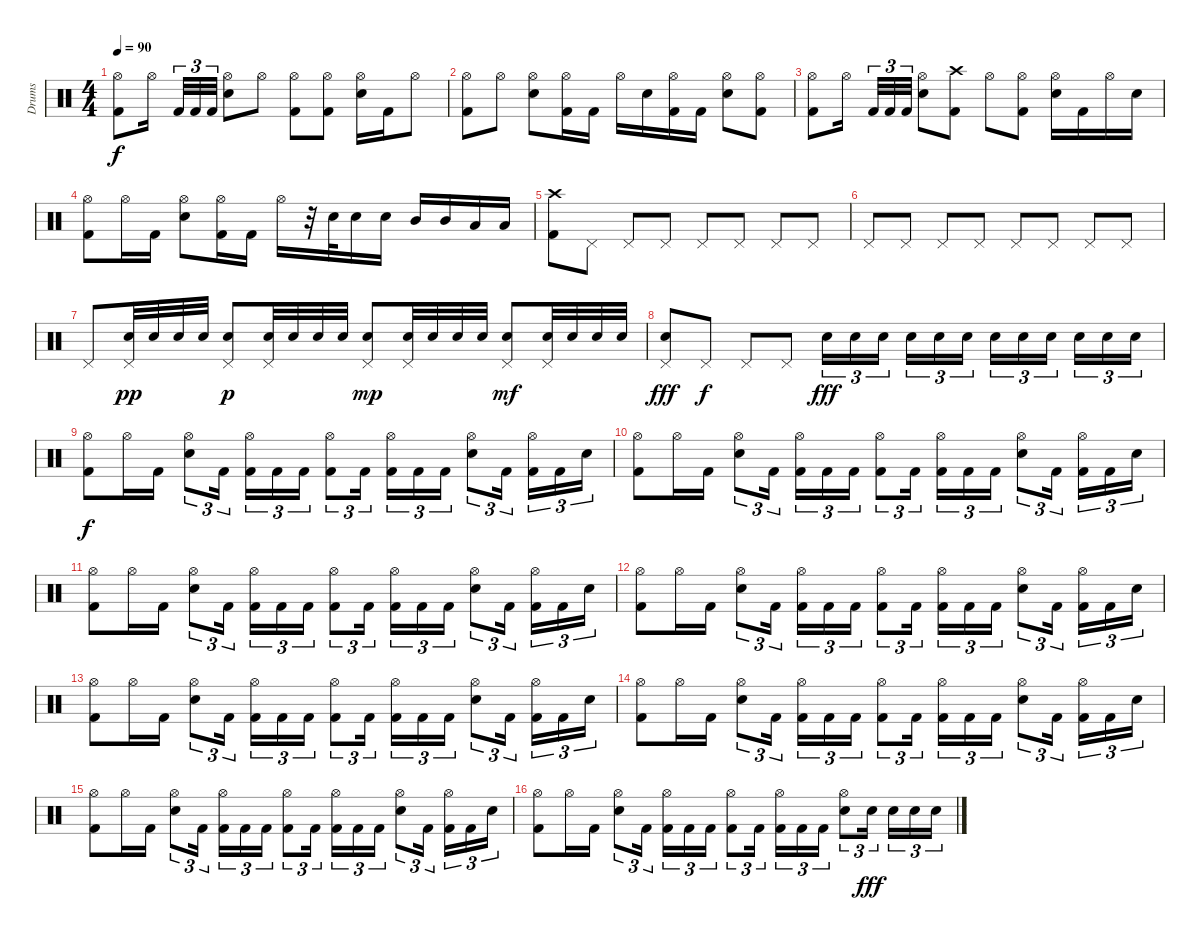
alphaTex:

\track ("Drums" "Drums") {instrument percussion}
\staff {score}
\articulation defaults
\ts (4 4)
\tempo 90
\clef neutral
\ks c
("Hi-Hat (open)" "Kick (hit) 2").8{dy f} "Hi-Hat (open)".16 "Kick (hit) 2".32{tu (3 2)} "Kick (hit) 2".32{tu (3 2)} "Kick (hit) 2".32{tu (3 2)} ("Hi-Hat (open)" "Electric Snare (hit)").8 "Hi-Hat (open)".8 ("Hi-Hat (open)" "Kick (hit) 2").8 ("Hi-Hat (open)" "Kick (hit) 2").8 ("Hi-Hat (open)" "Electric Snare (hit)").16 "Kick (hit) 2".16 "Hi-Hat (open)".8 |
("Hi-Hat (open)" "Kick (hit) 2").8 "Hi-Hat (open)".8 ("Hi-Hat (open)" "Electric Snare (hit)").8 ("Hi-Hat (open)" "Kick (hit) 2").16 "Kick (hit) 2".16 "Hi-Hat (open)".16 "Electric Snare (hit)".16 ("Hi-Hat (open)" "Kick (hit) 2").16 "Kick (hit) 2".16 ("Hi-Hat (open)" "Electric Snare (hit)").8 ("Hi-Hat (open)" "Kick (hit) 2").8 |
("Hi-Hat (open)" "Kick (hit) 2").8 "Hi-Hat (open)".16 "Kick (hit) 2".32{tu (3 2)} "Kick (hit) 2".32{tu (3 2)} "Kick (hit) 2".32{tu (3 2)} ("Hi-Hat (open)" "Electric Snare (hit)").8 ("Crash high (hit)" "Kick (hit) 2").8 "Hi-Hat (open)".8 ("Hi-Hat (open)" "Kick (hit) 2").8 ("Hi-Hat (open)" "Electric Snare (hit)").16 "Kick (hit) 2".16 "Hi-Hat (open)".16 "Electric Snare (hit)".16 |
("Hi-Hat (open)" "Kick (hit) 2").8 "Hi-Hat (open)".16 "Kick (hit) 2".16 ("Hi-Hat (open)" "Electric Snare (hit)").8 ("Hi-Hat (open)" "Kick (hit) 2").16 "Kick (hit) 2".16 "Hi-Hat (open)".16 r.32 "Electric Snare (hit)".32 "Electric Snare (hit)".16 "Electric Snare (hit)".16 "Mid Tom (hit)".16 "Mid Tom (hit)".16 "Low Tom (hit)".16 "Low Tom (hit)".16 |
("Crash high (hit)" "Kick (hit) 2").8 "Pedal Hi-Hat (hit)".8 "Pedal Hi-Hat (hit)".8 "Pedal Hi-Hat (hit)".8 "Pedal Hi-Hat (hit)".8 "Pedal Hi-Hat (hit)".8 "Pedal Hi-Hat (hit)".8 "Pedal Hi-Hat (hit)".8 |
"Pedal Hi-Hat (hit)".8 "Pedal Hi-Hat (hit)".8 "Pedal Hi-Hat (hit)".8 "Pedal Hi-Hat (hit)".8 "Pedal Hi-Hat (hit)".8 "Pedal Hi-Hat (hit)".8 "Pedal Hi-Hat (hit)".8 "Pedal Hi-Hat (hit)".8 |
"Pedal Hi-Hat (hit)".8 ("Pedal Hi-Hat (hit)" "Electric Snare (hit)").32{dy pp} "Electric Snare (hit)".32 "Electric Snare (hit)".32 "Electric Snare (hit)".32 ("Pedal Hi-Hat (hit)" "Electric Snare (hit)").8{dy p} ("Pedal Hi-Hat (hit)" "Electric Snare (hit)").32 "Electric Snare (hit)".32 "Electric Snare (hit)".32 "Electric Snare (hit)".32 ("Pedal Hi-Hat (hit)" "Electric Snare (hit)").8{dy mp} ("Pedal Hi-Hat (hit)" "Electric Snare (hit)").32 "Electric Snare (hit)".32 "Electric Snare (hit)".32 "Electric Snare (hit)".32 ("Pedal Hi-Hat (hit)" "Electric Snare (hit)").8{dy mf} ("Pedal Hi-Hat (hit)" "Electric Snare (hit)").32 "Electric Snare (hit)".32 "Electric Snare (hit)".32 "Electric Snare (hit)".32 |
("Pedal Hi-Hat (hit)" "Electric Snare (hit)").8{dy fff} "Pedal Hi-Hat (hit)".8{dy f} "Pedal Hi-Hat (hit)".8 "Pedal Hi-Hat (hit)".8 "Electric Snare (hit)".16{tu (3 2) dy fff} "Electric Snare (hit)".16{tu (3 2)} "Electric Snare (hit)".16{tu (3 2)} "Electric Snare (hit)".16{tu (3 2)} "Electric Snare (hit)".16{tu (3 2)} "Electric Snare (hit)".16{tu (3 2)} "Electric Snare (hit)".16{tu (3 2)} "Electric Snare (hit)".16{tu (3 2)} "Electric Snare (hit)".16{tu (3 2)} "Electric Snare (hit)".16{tu (3 2)} "Electric Snare (hit)".16{tu (3 2)} "Electric Snare (hit)".16{tu (3 2)} |
("Hi-Hat (open)" "Kick (hit) 2").8{dy f} "Hi-Hat (open)".16 "Kick (hit) 2".16 ("Hi-Hat (open)" "Electric Snare (hit)").8{tu (3 2)} "Kick (hit) 2".16{tu (3 2)} ("Hi-Hat (open)" "Kick (hit) 2").16{tu (3 2)} "Kick (hit) 2".16{tu (3 2)} "Kick (hit) 2".16{tu (3 2)} ("Hi-Hat (open)" "Kick (hit) 2").8{tu (3 2)} "Kick (hit) 2".16{tu (3 2)} ("Hi-Hat (open)" "Kick (hit) 2").16{tu (3 2)} "Kick (hit) 2".16{tu (3 2)} "Kick (hit) 2".16{tu (3 2)} ("Hi-Hat (open)" "Electric Snare (hit)").8{tu (3 2)} "Kick (hit) 2".16{tu (3 2)} ("Hi-Hat (open)" "Kick (hit) 2").16{tu (3 2)} "Kick (hit) 2".16{tu (3 2)} "Electric Snare (hit)".16{tu (3 2)} |
("Hi-Hat (open)" "Kick (hit) 2").8 "Hi-Hat (open)".16 "Kick (hit) 2".16 ("Hi-Hat (open)" "Electric Snare (hit)").8{tu (3 2)} "Kick (hit) 2".16{tu (3 2)} ("Hi-Hat (open)" "Kick (hit) 2").16{tu (3 2)} "Kick (hit) 2".16{tu (3 2)} "Kick (hit) 2".16{tu (3 2)} ("Hi-Hat (open)" "Kick (hit) 2").8{tu (3 2)} "Kick (hit) 2".16{tu (3 2)} ("Hi-Hat (open)" "Kick (hit) 2").16{tu (3 2)} "Kick (hit) 2".16{tu (3 2)} "Kick (hit) 2".16{tu (3 2)} ("Hi-Hat (open)" "Electric Snare (hit)").8{tu (3 2)} "Kick (hit) 2".16{tu (3 2)} ("Hi-Hat (open)" "Kick (hit) 2").16{tu (3 2)} "Kick (hit) 2".16{tu (3 2)} "Electric Snare (hit)".16{tu (3 2)} |
("Hi-Hat (open)" "Kick (hit) 2").8 "Hi-Hat (open)".16 "Kick (hit) 2".16 ("Hi-Hat (open)" "Electric Snare (hit)").8{tu (3 2)} "Kick (hit) 2".16{tu (3 2)} ("Hi-Hat (open)" "Kick (hit) 2").16{tu (3 2)} "Kick (hit) 2".16{tu (3 2)} "Kick (hit) 2".16{tu (3 2)} ("Hi-Hat (open)" "Kick (hit) 2").8{tu (3 2)} "Kick (hit) 2".16{tu (3 2)} ("Hi-Hat (open)" "Kick (hit) 2").16{tu (3 2)} "Kick (hit) 2".16{tu (3 2)} "Kick (hit) 2".16{tu (3 2)} ("Hi-Hat (open)" "Electric Snare (hit)").8{tu (3 2)} "Kick (hit) 2".16{tu (3 2)} ("Hi-Hat (open)" "Kick (hit) 2").16{tu (3 2)} "Kick (hit) 2".16{tu (3 2)} "Electric Snare (hit)".16{tu (3 2)} |
("Hi-Hat (open)" "Kick (hit) 2").8 "Hi-Hat (open)".16 "Kick (hit) 2".16 ("Hi-Hat (open)" "Electric Snare (hit)").8{tu (3 2)} "Kick (hit) 2".16{tu (3 2)} ("Hi-Hat (open)" "Kick (hit) 2").16{tu (3 2)} "Kick (hit) 2".16{tu (3 2)} "Kick (hit) 2".16{tu (3 2)} ("Hi-Hat (open)" "Kick (hit) 2").8{tu (3 2)} "Kick (hit) 2".16{tu (3 2)} ("Hi-Hat (open)" "Kick (hit) 2").16{tu (3 2)} "Kick (hit) 2".16{tu (3 2)} "Kick (hit) 2".16{tu (3 2)} ("Hi-Hat (open)" "Electric Snare (hit)").8{tu (3 2)} "Kick (hit) 2".16{tu (3 2)} ("Hi-Hat (open)" "Kick (hit) 2").16{tu (3 2)} "Kick (hit) 2".16{tu (3 2)} "Electric Snare (hit)".16{tu (3 2)} |
("Hi-Hat (open)" "Kick (hit) 2").8 "Hi-Hat (open)".16 "Kick (hit) 2".16 ("Hi-Hat (open)" "Electric Snare (hit)").8{tu (3 2)} "Kick (hit) 2".16{tu (3 2)} ("Hi-Hat (open)" "Kick (hit) 2").16{tu (3 2)} "Kick (hit) 2".16{tu (3 2)} "Kick (hit) 2".16{tu (3 2)} ("Hi-Hat (open)" "Kick (hit) 2").8{tu (3 2)} "Kick (hit) 2".16{tu (3 2)} ("Hi-Hat (open)" "Kick (hit) 2").16{tu (3 2)} "Kick (hit) 2".16{tu (3 2)} "Kick (hit) 2".16{tu (3 2)} ("Hi-Hat (open)" "Electric Snare (hit)").8{tu (3 2)} "Kick (hit) 2".16{tu (3 2)} ("Hi-Hat (open)" "Kick (hit) 2").16{tu (3 2)} "Kick (hit) 2".16{tu (3 2)} "Electric Snare (hit)".16{tu (3 2)} |
("Hi-Hat (open)" "Kick (hit) 2").8 "Hi-Hat (open)".16 "Kick (hit) 2".16 ("Hi-Hat (open)" "Electric Snare (hit)").8{tu (3 2)} "Kick (hit) 2".16{tu (3 2)} ("Hi-Hat (open)" "Kick (hit) 2").16{tu (3 2)} "Kick (hit) 2".16{tu (3 2)} "Kick (hit) 2".16{tu (3 2)} ("Hi-Hat (open)" "Kick (hit) 2").8{tu (3 2)} "Kick (hit) 2".16{tu (3 2)} ("Hi-Hat (open)" "Kick (hit) 2").16{tu (3 2)} "Kick (hit) 2".16{tu (3 2)} "Kick (hit) 2".16{tu (3 2)} ("Hi-Hat (open)" "Electric Snare (hit)").8{tu (3 2)} "Kick (hit) 2".16{tu (3 2)} ("Hi-Hat (open)" "Kick (hit) 2").16{tu (3 2)} "Kick (hit) 2".16{tu (3 2)} "Electric Snare (hit)".16{tu (3 2)} |
("Hi-Hat (open)" "Kick (hit) 2").8 "Hi-Hat (open)".16 "Kick (hit) 2".16 ("Hi-Hat (open)" "Electric Snare (hit)").8{tu (3 2)} "Kick (hit) 2".16{tu (3 2)} ("Hi-Hat (open)" "Kick (hit) 2").16{tu (3 2)} "Kick (hit) 2".16{tu (3 2)} "Kick (hit) 2".16{tu (3 2)} ("Hi-Hat (open)" "Kick (hit) 2").8{tu (3 2)} "Kick (hit) 2".16{tu (3 2)} ("Hi-Hat (open)" "Kick (hit) 2").16{tu (3 2)} "Kick (hit) 2".16{tu (3 2)} "Kick (hit) 2".16{tu (3 2)} ("Hi-Hat (open)" "Electric Snare (hit)").8{tu (3 2)} "Kick (hit) 2".16{tu (3 2)} ("Hi-Hat (open)" "Kick (hit) 2").16{tu (3 2)} "Kick (hit) 2".16{tu (3 2)} "Electric Snare (hit)".16{tu (3 2)} |
("Hi-Hat (open)" "Kick (hit) 2").8 "Hi-Hat (open)".16 "Kick (hit) 2".16 ("Hi-Hat (open)" "Electric Snare (hit)").8{tu (3 2)} "Kick (hit) 2".16{tu (3 2)} ("Hi-Hat (open)" "Kick (hit) 2").16{tu (3 2)} "Kick (hit) 2".16{tu (3 2)} "Kick (hit) 2".16{tu (3 2)} ("Hi-Hat (open)" "Kick (hit) 2").8{tu (3 2)} "Kick (hit) 2".16{tu (3 2)} ("Hi-Hat (open)" "Kick (hit) 2").16{tu (3 2)} "Kick (hit) 2".16{tu (3 2)} "Kick (hit) 2".16{tu (3 2)} ("Hi-Hat (open)" "Electric Snare (hit)").8{tu (3 2)} "Electric Snare (hit)".16{tu (3 2) dy fff} "Electric Snare (hit)".16{tu (3 2)} "Electric Snare (hit)".16{tu (3 2)} "Electric Snare (hit)".16{tu (3 2)}
